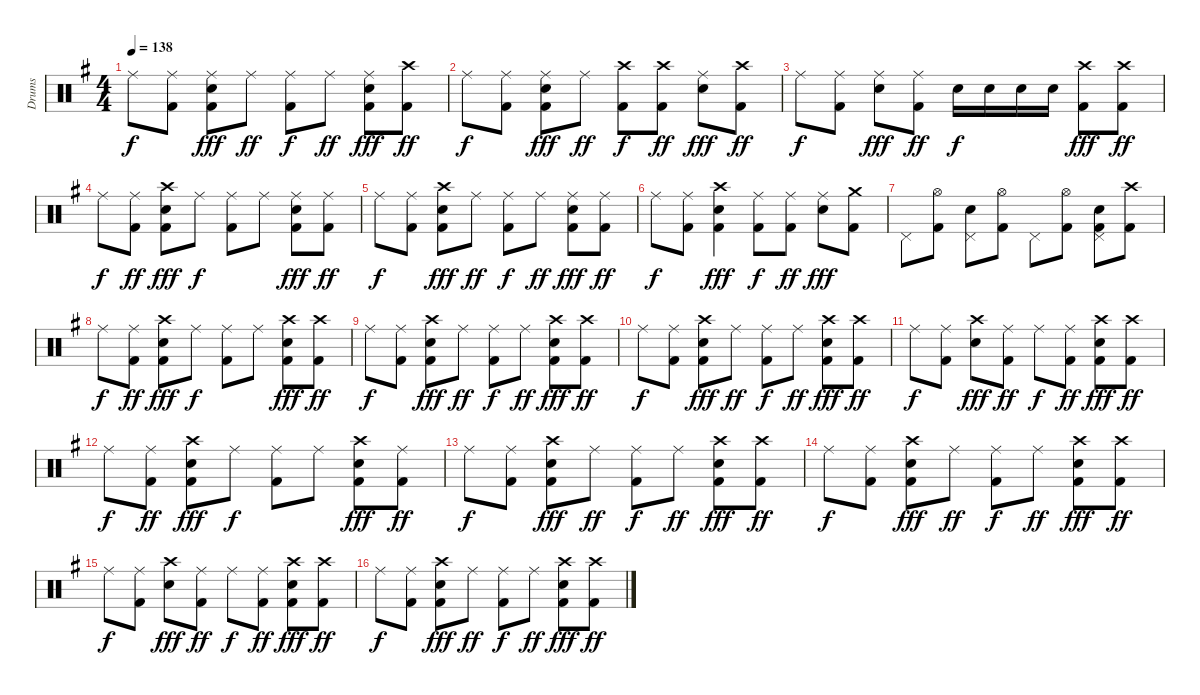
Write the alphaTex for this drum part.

\track ("Drums" "Drums") {instrument percussion}
\staff {score}
\articulation defaults
\ts (4 4)
\tempo 138
\clef neutral
\ks g "Ride (middle)".8{dy f}
("Ride (middle)" "Kick (hit) 2").8 ("Ride (middle)" "Snare (hit) 2" "Kick (hit) 2").8{dy fff} "Ride (middle)".8{dy ff} ("Ride (middle)" "Kick (hit) 2").8{dy f} "Ride (middle)".8{dy ff} ("Ride (middle)" "Snare (hit) 2" "Kick (hit) 2").8{dy fff} ("Crash high (hit)" "Kick (hit) 2").8{dy ff} |
"Ride (middle)".8{dy f} ("Ride (middle)" "Kick (hit) 2").8 ("Ride (middle)" "Snare (hit) 2" "Kick (hit) 2").8{dy fff} "Ride (middle)".8{dy ff} ("Crash high (hit)" "Kick (hit) 2").8{dy f} ("Crash high (hit)" "Kick (hit) 2").8{dy ff} ("Ride (middle)" "Snare (hit) 2").8{dy fff} ("Crash high (hit)" "Kick (hit) 2").8{dy ff} |
"Ride (middle)".8{dy f} ("Ride (middle)" "Kick (hit) 2").8 ("Ride (middle)" "Snare (hit) 2").8{dy fff} ("Ride (middle)" "Kick (hit) 2").8{dy ff} "Snare (hit) 2".16{dy f} "Snare (hit) 2".16 "Snare (hit) 2".16 "Snare (hit) 2".16 ("Crash high (hit)" "Kick (hit) 2").8{dy fff} ("Crash high (hit)" "Kick (hit) 2").8{dy ff} |
"Ride (middle)".8{dy f} ("Ride (middle)" "Kick (hit) 2").8{dy ff} ("Crash high (hit)" "Snare (hit) 2" "Kick (hit) 2").8{dy fff} "Ride (middle)".8{dy f} ("Ride (middle)" "Kick (hit) 2").8 "Ride (middle)".8 ("Ride (middle)" "Snare (hit) 2" "Kick (hit) 2").8{dy fff} ("Ride (middle)" "Kick (hit) 2").8{dy ff} |
"Ride (middle)".8{dy f} ("Ride (middle)" "Kick (hit) 2").8 ("Crash high (hit)" "Snare (hit) 2" "Kick (hit) 2").8{dy fff} "Ride (middle)".8{dy ff} ("Ride (middle)" "Kick (hit) 2").8{dy f} "Ride (middle)".8{dy ff} ("Ride (middle)" "Snare (hit) 2" "Kick (hit) 2").8{dy fff} ("Ride (middle)" "Kick (hit) 2").8{dy ff} |
"Ride (middle)".8{dy f} ("Ride (middle)" "Kick (hit) 2").8 ("Crash high (hit)" "Snare (hit) 2" "Kick (hit) 2").4{dy fff} ("Ride (middle)" "Kick (hit) 2").8{dy f} ("Ride (middle)" "Kick (hit) 2").8{dy ff} ("Ride (middle)" "Snare (hit) 2").8{dy fff} ("Crash medium (hit)" "Kick (hit) 2").8 |
"Pedal Hi-Hat (hit)".8 ("Hi-Hat (open)" "Kick (hit) 2").8 ("Snare (hit) 2" "Pedal Hi-Hat (hit)").8 ("Hi-Hat (open)" "Kick (hit) 2").8 "Pedal Hi-Hat (hit)".8 ("Hi-Hat (open)" "Kick (hit) 2").8 ("Snare (hit) 2" "Pedal Hi-Hat (hit)" "Kick (hit) 2").8 ("Crash high (hit)" "Kick (hit) 2").8 |
"Ride (middle)".8{dy f} ("Ride (middle)" "Kick (hit) 2").8{dy ff} ("Crash high (hit)" "Snare (hit) 2" "Kick (hit) 2").8{dy fff} "Ride (middle)".8{dy f} ("Ride (middle)" "Kick (hit) 2").8 "Ride (middle)".8 ("Crash high (hit)" "Snare (hit) 2" "Kick (hit) 2").8{dy fff} ("Crash high (hit)" "Kick (hit) 2").8{dy ff} |
"Ride (middle)".8{dy f} ("Ride (middle)" "Kick (hit) 2").8 ("Crash high (hit)" "Snare (hit) 2" "Kick (hit) 2").8{dy fff} "Ride (middle)".8{dy ff} ("Ride (middle)" "Kick (hit) 2").8{dy f} "Ride (middle)".8{dy ff} ("Crash high (hit)" "Snare (hit) 2" "Kick (hit) 2").8{dy fff} ("Crash high (hit)" "Kick (hit) 2").8{dy ff} |
"Ride (middle)".8{dy f} ("Ride (middle)" "Kick (hit) 2").8 ("Crash high (hit)" "Snare (hit) 2" "Kick (hit) 2").8{dy fff} "Ride (middle)".8{dy ff} ("Ride (middle)" "Kick (hit) 2").8{dy f} "Ride (middle)".8{dy ff} ("Crash high (hit)" "Snare (hit) 2" "Kick (hit) 2").8{dy fff} ("Crash high (hit)" "Kick (hit) 2").8{dy ff} |
"Ride (middle)".8{dy f} ("Ride (middle)" "Kick (hit) 2").8 ("Crash high (hit)" "Snare (hit) 2").8{dy fff} ("Ride (middle)" "Kick (hit) 2").8{dy ff} "Ride (middle)".8{dy f} ("Ride (middle)" "Kick (hit) 2").8{dy ff} ("Crash high (hit)" "Snare (hit) 2" "Kick (hit) 2").8{dy fff} ("Crash high (hit)" "Kick (hit) 2").8{dy ff} |
"Ride (middle)".8{dy f} ("Ride (middle)" "Kick (hit) 2").8{dy ff} ("Crash high (hit)" "Snare (hit) 2" "Kick (hit) 2").8{dy fff} "Ride (middle)".8{dy f} ("Ride (middle)" "Kick (hit) 2").8 "Ride (middle)".8 ("Crash high (hit)" "Snare (hit) 2" "Kick (hit) 2").8{dy fff} ("Ride (middle)" "Kick (hit) 2").8{dy ff} |
"Ride (middle)".8{dy f} ("Ride (middle)" "Kick (hit) 2").8 ("Crash high (hit)" "Snare (hit) 2" "Kick (hit) 2").8{dy fff} "Ride (middle)".8{dy ff} ("Ride (middle)" "Kick (hit) 2").8{dy f} "Ride (middle)".8{dy ff} ("Crash high (hit)" "Snare (hit) 2" "Kick (hit) 2").8{dy fff} ("Crash high (hit)" "Kick (hit) 2").8{dy ff} |
"Ride (middle)".8{dy f} ("Ride (middle)" "Kick (hit) 2").8 ("Crash high (hit)" "Snare (hit) 2" "Kick (hit) 2").8{dy fff} "Ride (middle)".8{dy ff} ("Ride (middle)" "Kick (hit) 2").8{dy f} "Ride (middle)".8{dy ff} ("Crash high (hit)" "Snare (hit) 2" "Kick (hit) 2").8{dy fff} ("Crash high (hit)" "Kick (hit) 2").8{dy ff} |
"Ride (middle)".8{dy f} ("Ride (middle)" "Kick (hit) 2").8 ("Crash high (hit)" "Snare (hit) 2").8{dy fff} ("Ride (middle)" "Kick (hit) 2").8{dy ff} "Ride (middle)".8{dy f} ("Ride (middle)" "Kick (hit) 2").8{dy ff} ("Crash high (hit)" "Snare (hit) 2" "Kick (hit) 2").8{dy fff} ("Crash high (hit)" "Kick (hit) 2").8{dy ff} |
"Ride (middle)".8{dy f} ("Ride (middle)" "Kick (hit) 2").8 ("Crash high (hit)" "Snare (hit) 2" "Kick (hit) 2").8{dy fff} "Ride (middle)".8{dy ff} ("Ride (middle)" "Kick (hit) 2").8{dy f} "Ride (middle)".8{dy ff} ("Crash high (hit)" "Snare (hit) 2" "Kick (hit) 2").8{dy fff} ("Crash high (hit)" "Kick (hit) 2").8{dy ff}
